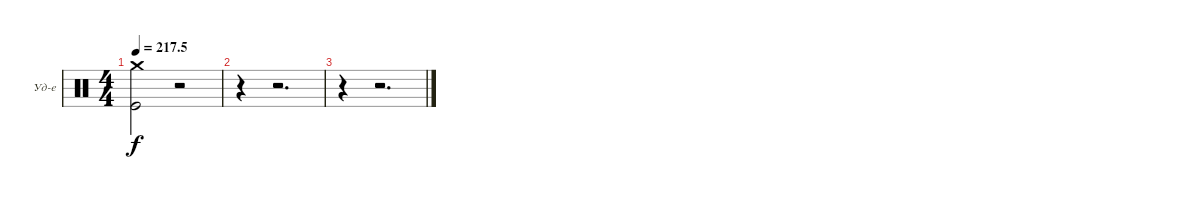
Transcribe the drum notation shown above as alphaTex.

\bracketExtendMode groupsimilarinstruments
\firstSystemTrackNameOrientation horizontal
\otherSystemsTrackNameOrientation horizontal
\track ("Ударные" "Уд-е") {instrument percussion}
\staff {score}
\articulation defaults
\ts (4 4)
\tempo
217.5
\accidentals auto
\clef neutral
\ottava regular
\simile none
\ks c
("Kick (hit)" "Crash medium (hit)").2{dy f} r.2 |
r.4 r.2{d} |
r.4 r.2{d}
